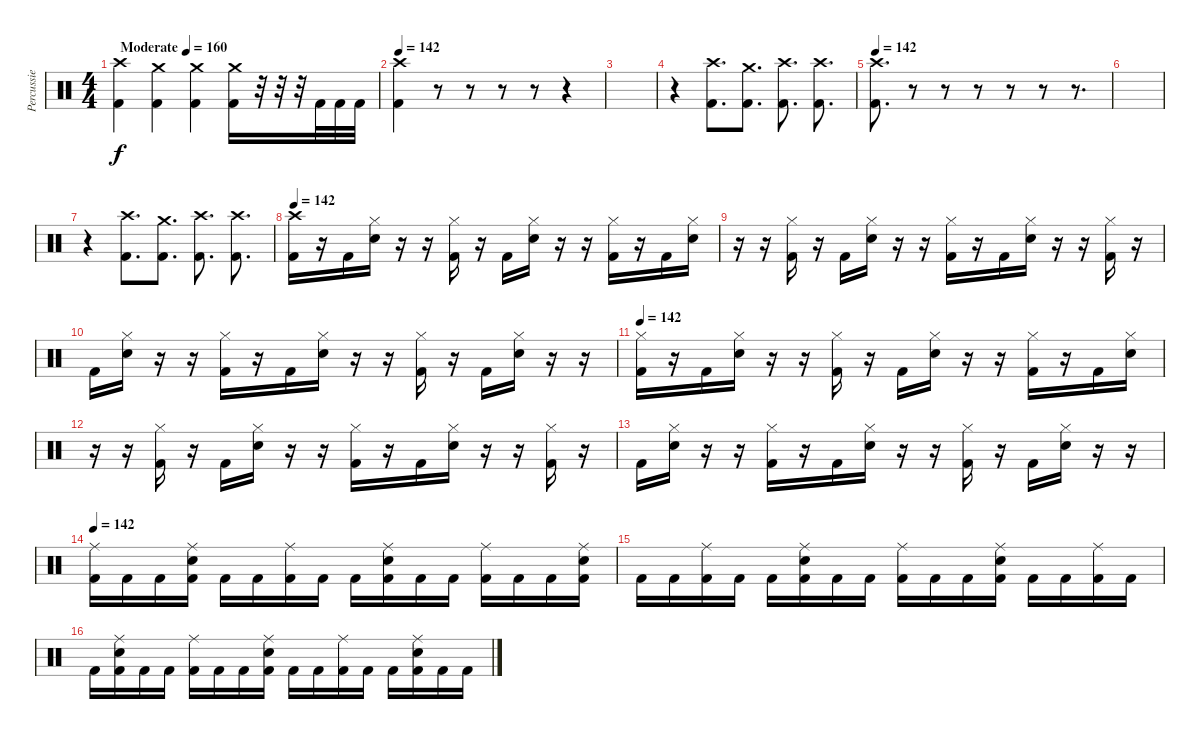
\track ("Percussie" "Percussie") {instrument percussion}
\staff {score}
\articulation defaults
\ts (4 4)
\tempo (160 "Moderate")
\tempo 100
\tempo (160 "Moderate")
\clef neutral
\ks c
("Crash high (hit)" "Kick (hit) 2").4{dy f} ("Crash medium (hit)" "Kick (hit) 2").4 ("Crash medium (hit)" "Kick (hit) 2").4 ("Crash medium (hit)" "Kick (hit) 2").16 r.32 r.32 r.32 "Kick (hit) 2".32 "Kick (hit) 2".32 "Kick (hit) 2".32 |
\tempo 142
("Crash high (hit)" "Kick (hit) 2").4 r.8 r.8 r.8 r.8 r.4 |
|
r.4 ("Crash high (hit)" "Kick (hit) 2").8{d} ("Crash medium (hit)" "Kick (hit) 2").8{d} ("Crash high (hit)" "Kick (hit) 2").8{d} ("Crash high (hit)" "Kick (hit) 2").8{d} |
\tempo 142
("Crash high (hit)" "Kick (hit) 2").8{d} r.8 r.8 r.8 r.8 r.8 r.8{d} |
|
r.4 ("Crash high (hit)" "Kick (hit) 2").8{d} ("Crash medium (hit)" "Kick (hit) 2").8{d} ("Crash high (hit)" "Kick (hit) 2").8{d} ("Crash high (hit)" "Kick (hit) 2").8{d} |
\tempo 142
("Crash high (hit)" "Kick (hit) 2").16 r.16 "Kick (hit) 2".16 ("Hi-Hat (closed)" "Snare (hit) 2").16 r.16 r.16 ("Hi-Hat (closed)" "Kick (hit) 2").16 r.16 "Kick (hit) 2".16 ("Hi-Hat (closed)" "Snare (hit) 2").16 r.16 r.16 ("Hi-Hat (closed)" "Kick (hit) 2").16 r.16 "Kick (hit) 2".16 ("Hi-Hat (closed)" "Snare (hit) 2").16 |
r.16 r.16 ("Hi-Hat (closed)" "Kick (hit) 2").16 r.16 "Kick (hit) 2".16 ("Hi-Hat (closed)" "Snare (hit) 2").16 r.16 r.16 ("Hi-Hat (closed)" "Kick (hit) 2").16 r.16 "Kick (hit) 2".16 ("Hi-Hat (closed)" "Snare (hit) 2").16 r.16 r.16 ("Hi-Hat (closed)" "Kick (hit) 2").16 r.16 |
"Kick (hit) 2".16 ("Hi-Hat (closed)" "Snare (hit) 2").16 r.16 r.16 ("Hi-Hat (closed)" "Kick (hit) 2").16 r.16 "Kick (hit) 2".16 ("Hi-Hat (closed)" "Snare (hit) 2").16 r.16 r.16 ("Hi-Hat (closed)" "Kick (hit) 2").16 r.16 "Kick (hit) 2".16 ("Hi-Hat (closed)" "Snare (hit) 2").16 r.16 r.16 |
\tempo 142
("Hi-Hat (closed)" "Kick (hit) 2").16 r.16 "Kick (hit) 2".16 ("Hi-Hat (closed)" "Snare (hit) 2").16 r.16 r.16 ("Hi-Hat (closed)" "Kick (hit) 2").16 r.16 "Kick (hit) 2".16 ("Hi-Hat (closed)" "Snare (hit) 2").16 r.16 r.16 ("Hi-Hat (closed)" "Kick (hit) 2").16 r.16 "Kick (hit) 2".16 ("Hi-Hat (closed)" "Snare (hit) 2").16 |
r.16 r.16 ("Hi-Hat (closed)" "Kick (hit) 2").16 r.16 "Kick (hit) 2".16 ("Hi-Hat (closed)" "Snare (hit) 2").16 r.16 r.16 ("Hi-Hat (closed)" "Kick (hit) 2").16 r.16 "Kick (hit) 2".16 ("Hi-Hat (closed)" "Snare (hit) 2").16 r.16 r.16 ("Hi-Hat (closed)" "Kick (hit) 2").16 r.16 |
"Kick (hit) 2".16 ("Hi-Hat (closed)" "Snare (hit) 2").16 r.16 r.16 ("Hi-Hat (closed)" "Kick (hit) 2").16 r.16 "Kick (hit) 2".16 ("Hi-Hat (closed)" "Snare (hit) 2").16 r.16 r.16 ("Hi-Hat (closed)" "Kick (hit) 2").16 r.16 "Kick (hit) 2".16 ("Hi-Hat (closed)" "Snare (hit) 2").16 r.16 r.16 |
\tempo 142
("Ride (middle)" "Kick (hit) 2").16 "Kick (hit) 2".16 "Kick (hit) 2".16 ("Ride (middle)" "Snare (hit) 2" "Kick (hit) 2").16 "Kick (hit) 2".16 "Kick (hit) 2".16 ("Ride (middle)" "Kick (hit) 2").16 "Kick (hit) 2".16 "Kick (hit) 2".16 ("Ride (middle)" "Snare (hit) 2" "Kick (hit) 2").16 "Kick (hit) 2".16 "Kick (hit) 2".16 ("Ride (middle)" "Kick (hit) 2").16 "Kick (hit) 2".16 "Kick (hit) 2".16 ("Ride (middle)" "Snare (hit) 2" "Kick (hit) 2").16 |
"Kick (hit) 2".16 "Kick (hit) 2".16 ("Ride (middle)" "Kick (hit) 2").16 "Kick (hit) 2".16 "Kick (hit) 2".16 ("Ride (middle)" "Snare (hit) 2" "Kick (hit) 2").16 "Kick (hit) 2".16 "Kick (hit) 2".16 ("Ride (middle)" "Kick (hit) 2").16 "Kick (hit) 2".16 "Kick (hit) 2".16 ("Ride (middle)" "Snare (hit) 2" "Kick (hit) 2").16 "Kick (hit) 2".16 "Kick (hit) 2".16 ("Ride (middle)" "Kick (hit) 2").16 "Kick (hit) 2".16 |
"Kick (hit) 2".16 ("Ride (middle)" "Snare (hit) 2" "Kick (hit) 2").16 "Kick (hit) 2".16 "Kick (hit) 2".16 ("Ride (middle)" "Kick (hit) 2").16 "Kick (hit) 2".16 "Kick (hit) 2".16 ("Ride (middle)" "Snare (hit) 2" "Kick (hit) 2").16 "Kick (hit) 2".16 "Kick (hit) 2".16 ("Ride (middle)" "Kick (hit) 2").16 "Kick (hit) 2".16 "Kick (hit) 2".16 ("Ride (middle)" "Snare (hit) 2" "Kick (hit) 2").16 "Kick (hit) 2".16 "Kick (hit) 2".16
